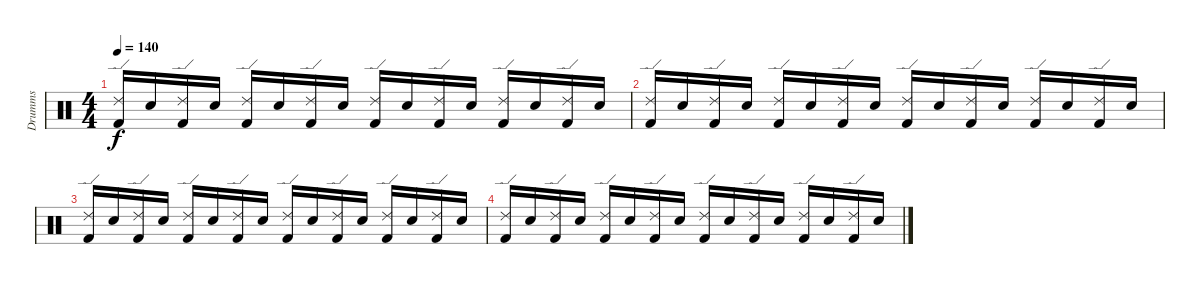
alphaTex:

\track ("Drumms" "Drumms") {instrument percussion}
\staff {score}
\articulation defaults
\ts (4 4)
\tempo 140
\clef neutral
\ks c
("Kick (hit) 2" "Ride (edge) 2").16{dy f volume 0} "Snare (hit) 2".16 ("Kick (hit) 2" "Ride (edge) 2").16 "Snare (hit) 2".16 ("Kick (hit) 2" "Ride (edge) 2").16 "Snare (hit) 2".16 ("Kick (hit) 2" "Ride (edge) 2").16 "Snare (hit) 2".16 ("Kick (hit) 2" "Ride (edge) 2").16 "Snare (hit) 2".16 ("Kick (hit) 2" "Ride (edge) 2").16 "Snare (hit) 2".16 ("Kick (hit) 2" "Ride (edge) 2").16 "Snare (hit) 2".16 ("Kick (hit) 2" "Ride (edge) 2").16 "Snare (hit) 2".16 |
("Kick (hit) 2" "Ride (edge) 2").16 "Snare (hit) 2".16 ("Kick (hit) 2" "Ride (edge) 2").16 "Snare (hit) 2".16 ("Kick (hit) 2" "Ride (edge) 2").16 "Snare (hit) 2".16 ("Kick (hit) 2" "Ride (edge) 2").16 "Snare (hit) 2".16 ("Kick (hit) 2" "Ride (edge) 2").16 "Snare (hit) 2".16 ("Kick (hit) 2" "Ride (edge) 2").16 "Snare (hit) 2".16 ("Kick (hit) 2" "Ride (edge) 2").16 "Snare (hit) 2".16 ("Kick (hit) 2" "Ride (edge) 2").16 "Snare (hit) 2".16 |
("Kick (hit) 2" "Ride (edge) 2").16 "Snare (hit) 2".16 ("Kick (hit) 2" "Ride (edge) 2").16 "Snare (hit) 2".16 ("Kick (hit) 2" "Ride (edge) 2").16 "Snare (hit) 2".16 ("Kick (hit) 2" "Ride (edge) 2").16 "Snare (hit) 2".16 ("Kick (hit) 2" "Ride (edge) 2").16 "Snare (hit) 2".16 ("Kick (hit) 2" "Ride (edge) 2").16 "Snare (hit) 2".16 ("Kick (hit) 2" "Ride (edge) 2").16 "Snare (hit) 2".16 ("Kick (hit) 2" "Ride (edge) 2").16 "Snare (hit) 2".16 |
("Kick (hit) 2" "Ride (edge) 2").16 "Snare (hit) 2".16 ("Kick (hit) 2" "Ride (edge) 2").16 "Snare (hit) 2".16 ("Kick (hit) 2" "Ride (edge) 2").16 "Snare (hit) 2".16 ("Kick (hit) 2" "Ride (edge) 2").16 "Snare (hit) 2".16 ("Kick (hit) 2" "Ride (edge) 2").16 "Snare (hit) 2".16 ("Kick (hit) 2" "Ride (edge) 2").16 "Snare (hit) 2".16 ("Kick (hit) 2" "Ride (edge) 2").16 "Snare (hit) 2".16 ("Kick (hit) 2" "Ride (edge) 2").16 "Snare (hit) 2".16
